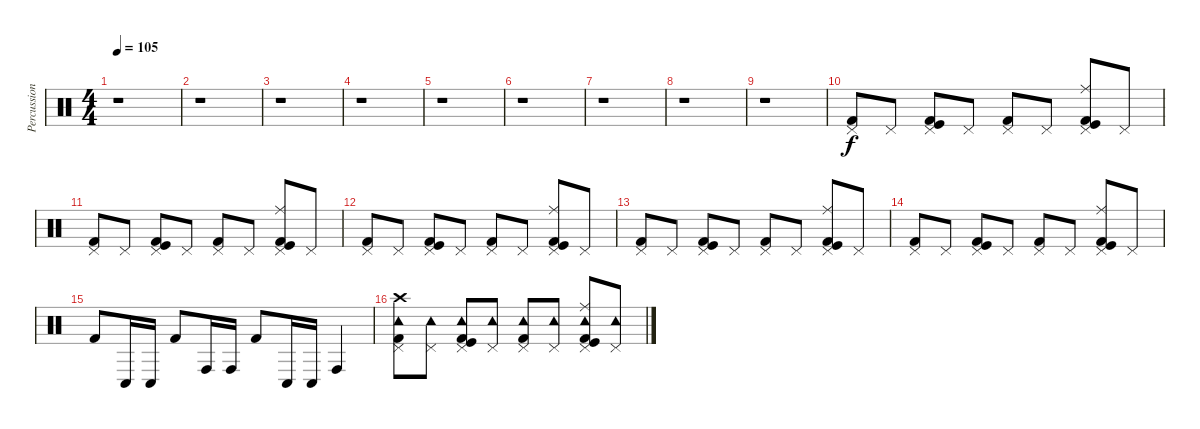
\track ("Percussion" "Percussion") {instrument percussion}
\staff {score}
\articulation defaults
\ts (4 4)
\tempo 105
\clef neutral
\ks aminor
r.1{dy f} |
r.1 |
r.1 |
r.1 |
r.1 |
r.1 |
r.1 |
r.1 |
r.1 |
("Kick (hit) 2" "Pedal Hi-Hat (hit)").8 "Pedal Hi-Hat (hit)".8 ("Kick (hit)" "Pedal Hi-Hat (hit)" "Kick (hit) 2").8 "Pedal Hi-Hat (hit)".8 ("Kick (hit) 2" "Pedal Hi-Hat (hit)").8 "Pedal Hi-Hat (hit)".8 ("Kick (hit)" "Pedal Hi-Hat (hit)" "Ride (middle)" "Kick (hit) 2").8 "Pedal Hi-Hat (hit)".8 |
("Kick (hit) 2" "Pedal Hi-Hat (hit)").8 "Pedal Hi-Hat (hit)".8 ("Kick (hit)" "Pedal Hi-Hat (hit)" "Kick (hit) 2").8 "Pedal Hi-Hat (hit)".8 ("Kick (hit) 2" "Pedal Hi-Hat (hit)").8 "Pedal Hi-Hat (hit)".8 ("Kick (hit)" "Pedal Hi-Hat (hit)" "Ride (middle)" "Kick (hit) 2").8 "Pedal Hi-Hat (hit)".8 |
("Kick (hit) 2" "Pedal Hi-Hat (hit)").8 "Pedal Hi-Hat (hit)".8 ("Kick (hit)" "Pedal Hi-Hat (hit)" "Kick (hit) 2").8 "Pedal Hi-Hat (hit)".8 ("Kick (hit) 2" "Pedal Hi-Hat (hit)").8 "Pedal Hi-Hat (hit)".8 ("Kick (hit)" "Pedal Hi-Hat (hit)" "Ride (middle)" "Kick (hit) 2").8 "Pedal Hi-Hat (hit)".8 |
("Kick (hit) 2" "Pedal Hi-Hat (hit)").8 "Pedal Hi-Hat (hit)".8 ("Kick (hit)" "Pedal Hi-Hat (hit)" "Kick (hit) 2").8 "Pedal Hi-Hat (hit)".8 ("Kick (hit) 2" "Pedal Hi-Hat (hit)").8 "Pedal Hi-Hat (hit)".8 ("Kick (hit)" "Pedal Hi-Hat (hit)" "Ride (middle)" "Kick (hit) 2").8 "Pedal Hi-Hat (hit)".8 |
("Kick (hit) 2" "Pedal Hi-Hat (hit)").8 "Pedal Hi-Hat (hit)".8 ("Kick (hit)" "Pedal Hi-Hat (hit)" "Kick (hit) 2").8 "Pedal Hi-Hat (hit)".8 ("Kick (hit) 2" "Pedal Hi-Hat (hit)").8 "Pedal Hi-Hat (hit)".8 ("Kick (hit)" "Pedal Hi-Hat (hit)" "Ride (middle)" "Kick (hit) 2").8 "Pedal Hi-Hat (hit)".8 |
"Kick (hit) 2".8 "Conga low (hit)".16 "Conga low (hit)".16 "Kick (hit) 2".8 "Conga high (hit)".16 "Conga high (hit)".16 "Kick (hit) 2".8 "Conga low (hit)".16 "Conga low (hit)".16 "Conga high (hit)".4 |
("Kick (hit) 2" "Pedal Hi-Hat (hit)" "Tambourine (hit)" "Crash high (hit)").8 ("Pedal Hi-Hat (hit)" "Tambourine (hit)").8 ("Kick (hit)" "Pedal Hi-Hat (hit)" "Tambourine (hit)" "Kick (hit) 2").8 ("Pedal Hi-Hat (hit)" "Tambourine (hit)").8 ("Kick (hit) 2" "Pedal Hi-Hat (hit)" "Tambourine (hit)").8 ("Pedal Hi-Hat (hit)" "Tambourine (hit)").8 ("Kick (hit)" "Pedal Hi-Hat (hit)" "Tambourine (hit)" "Kick (hit) 2" "Ride (middle)").8 ("Pedal Hi-Hat (hit)" "Tambourine (hit)").8
